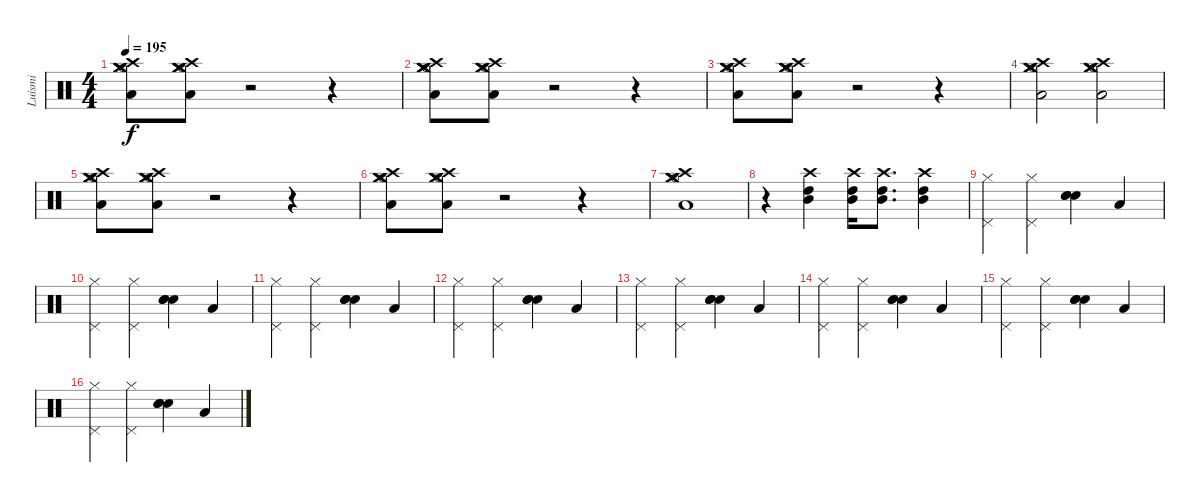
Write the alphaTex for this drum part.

\track ("Luismi" "Luismi") {instrument percussion}
\staff {score}
\articulation defaults
\ts (4 4)
\tempo 195
\clef neutral
\ks c
("Crash high (hit)" "Low Floor Tom (hit)" "Crash medium (hit)" "Hi-Hat (open)" "Crash medium (hit)" "Crash medium (hit)").8{dy f} ("Crash high (hit)" "Low Floor Tom (hit)" "Crash medium (hit)" "Hi-Hat (open)" "Crash medium (hit)" "Crash medium (hit)").8 r.2 r.4 |
("Crash high (hit)" "Low Floor Tom (hit)" "Crash medium (hit)" "Hi-Hat (open)" "Crash medium (hit)" "Crash medium (hit)").8 ("Crash high (hit)" "Low Floor Tom (hit)" "Crash medium (hit)" "Hi-Hat (open)" "Crash medium (hit)" "Crash medium (hit)").8 r.2 r.4 |
("Crash high (hit)" "Low Floor Tom (hit)" "Crash medium (hit)" "Hi-Hat (open)" "Crash medium (hit)" "Crash medium (hit)").8 ("Crash high (hit)" "Low Floor Tom (hit)" "Crash medium (hit)" "Hi-Hat (open)" "Crash medium (hit)" "Crash medium (hit)").8 r.2 r.4 |
("Crash high (hit)" "Low Floor Tom (hit)" "Crash medium (hit)" "Hi-Hat (open)" "Crash medium (hit)" "Crash medium (hit)").2 ("Crash high (hit)" "Low Floor Tom (hit)" "Crash medium (hit)" "Hi-Hat (open)" "Crash medium (hit)" "Crash medium (hit)").2 |
("Crash high (hit)" "Low Floor Tom (hit)" "Crash medium (hit)" "Hi-Hat (open)" "Crash medium (hit)" "Crash medium (hit)").8 ("Crash high (hit)" "Low Floor Tom (hit)" "Crash medium (hit)" "Hi-Hat (open)" "Crash medium (hit)" "Crash medium (hit)").8 r.2 r.4 |
("Crash high (hit)" "Low Floor Tom (hit)" "Crash medium (hit)" "Hi-Hat (open)" "Crash medium (hit)" "Crash medium (hit)").8 ("Crash high (hit)" "Low Floor Tom (hit)" "Crash medium (hit)" "Hi-Hat (open)" "Crash medium (hit)" "Crash medium (hit)").8 r.2 r.4 |
("Crash high (hit)" "Low Floor Tom (hit)" "Crash medium (hit)" "Hi-Hat (open)" "Crash medium (hit)" "Crash medium (hit)").1 |
r.4 ("Crash high (hit)" "High Tom (hit)" "Mid Tom (hit)").4 ("Crash high (hit)" "High Tom (hit)" "Mid Tom (hit)").16 ("Crash high (hit)" "High Tom (hit)" "Mid Tom (hit)").8{d} ("Crash high (hit)" "High Tom (hit)" "Mid Tom (hit)").4 |
("Pedal Hi-Hat (hit)" "Hi-Hat (closed)").4 ("Pedal Hi-Hat (hit)" "Hi-Hat (closed)").4 ("Electric Snare (hit)" "Electric Snare (hit)" "Electric Snare (hit)").4 "Low Floor Tom (hit)".4 |
("Pedal Hi-Hat (hit)" "Hi-Hat (closed)").4 ("Pedal Hi-Hat (hit)" "Hi-Hat (closed)").4 ("Electric Snare (hit)" "Electric Snare (hit)" "Electric Snare (hit)").4 "Low Floor Tom (hit)".4 |
("Pedal Hi-Hat (hit)" "Hi-Hat (closed)").4 ("Pedal Hi-Hat (hit)" "Hi-Hat (closed)").4 ("Electric Snare (hit)" "Electric Snare (hit)" "Electric Snare (hit)").4 "Low Floor Tom (hit)".4 |
("Pedal Hi-Hat (hit)" "Hi-Hat (closed)").4 ("Pedal Hi-Hat (hit)" "Hi-Hat (closed)").4 ("Electric Snare (hit)" "Electric Snare (hit)" "Electric Snare (hit)").4 "Low Floor Tom (hit)".4 |
("Pedal Hi-Hat (hit)" "Hi-Hat (closed)").4 ("Pedal Hi-Hat (hit)" "Hi-Hat (closed)").4 ("Electric Snare (hit)" "Electric Snare (hit)" "Electric Snare (hit)").4 "Low Floor Tom (hit)".4 |
("Pedal Hi-Hat (hit)" "Hi-Hat (closed)").4 ("Pedal Hi-Hat (hit)" "Hi-Hat (closed)").4 ("Electric Snare (hit)" "Electric Snare (hit)" "Electric Snare (hit)").4 "Low Floor Tom (hit)".4 |
("Pedal Hi-Hat (hit)" "Hi-Hat (closed)").4 ("Pedal Hi-Hat (hit)" "Hi-Hat (closed)").4 ("Electric Snare (hit)" "Electric Snare (hit)" "Electric Snare (hit)").4 "Low Floor Tom (hit)".4 |
("Pedal Hi-Hat (hit)" "Hi-Hat (closed)").4 ("Pedal Hi-Hat (hit)" "Hi-Hat (closed)").4 ("Electric Snare (hit)" "Electric Snare (hit)" "Electric Snare (hit)").4 "Low Floor Tom (hit)".4
